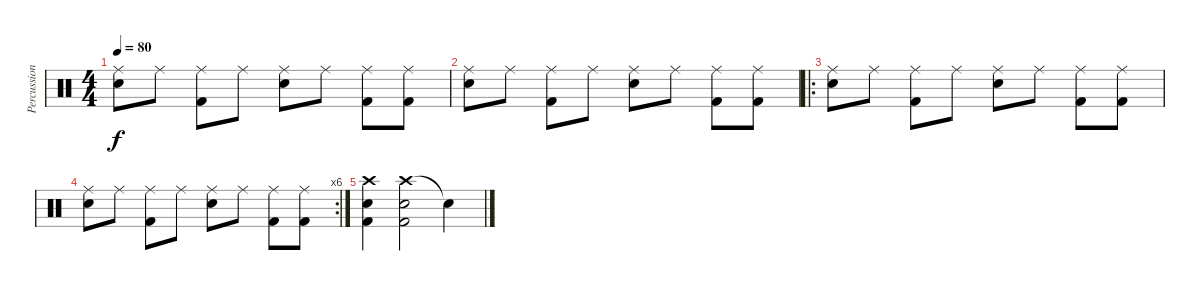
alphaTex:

\track ("Percussions" "Percussion") {instrument percussion}
\staff {score}
\articulation defaults
\ts (4 4)
\tempo 80
\clef neutral
\ks c
("Ride (middle)" "Snare (hit) 2").8{dy f} "Ride (middle)".8 ("Ride (middle)" "Kick (hit) 2").8 "Ride (middle)".8 ("Ride (middle)" "Snare (hit) 2").8 "Ride (middle)".8 ("Ride (middle)" "Kick (hit) 2").8 ("Ride (middle)" "Kick (hit) 2").8 |
("Ride (middle)" "Snare (hit) 2").8 "Ride (middle)".8 ("Ride (middle)" "Kick (hit) 2").8 "Ride (middle)".8 ("Ride (middle)" "Snare (hit) 2").8 "Ride (middle)".8 ("Ride (middle)" "Kick (hit) 2").8 ("Ride (middle)" "Kick (hit) 2").8 |
\ro
("Ride (middle)" "Snare (hit) 2").8 "Ride (middle)".8 ("Ride (middle)" "Kick (hit) 2").8 "Ride (middle)".8 ("Ride (middle)" "Snare (hit) 2").8 "Ride (middle)".8 ("Ride (middle)" "Kick (hit) 2").8 ("Ride (middle)" "Kick (hit) 2").8 |
\rc 6
("Ride (middle)" "Snare (hit) 2").8 "Ride (middle)".8 ("Ride (middle)" "Kick (hit) 2").8 "Ride (middle)".8 ("Ride (middle)" "Snare (hit) 2").8 "Ride (middle)".8 ("Ride (middle)" "Kick (hit) 2").8 ("Ride (middle)" "Kick (hit) 2").8 |
("Crash high (hit)" "Snare (hit) 2" "Kick (hit) 2").4 ("Crash high (hit)" "Snare (hit) 2" "Kick (hit) 2").2 "Snare (hit)"{t}.4
